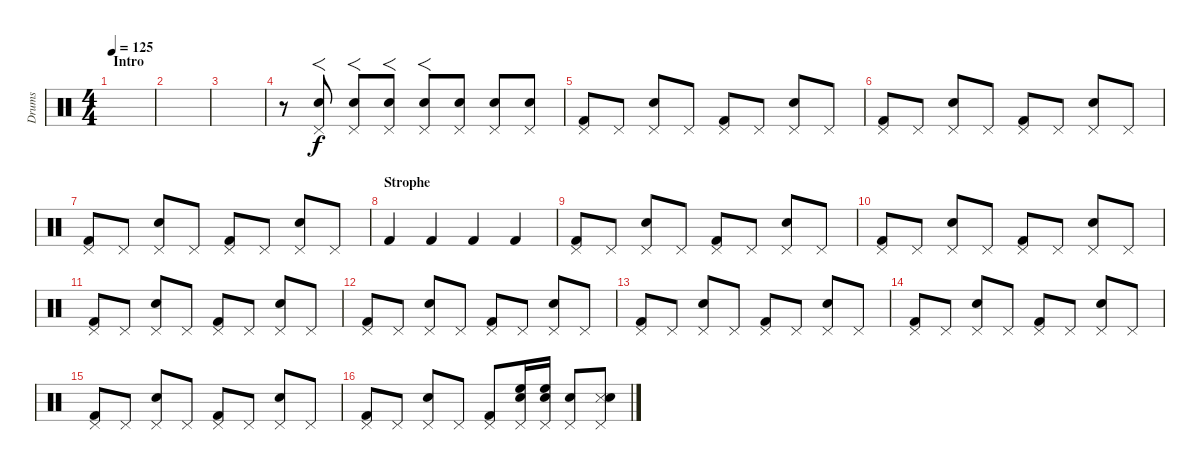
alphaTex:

\track ("Drums" "Drums") {instrument percussion}
\staff {score}
\articulation defaults
\ts (4 4)
\section ("" "Intro")
\tempo 125
\clef neutral
\ks c
|
|
|
r.8 ("Pedal Hi-Hat (hit)" "Snare (hit) 2").8{f} ("Snare (hit) 2" "Pedal Hi-Hat (hit)").8{f} ("Snare (hit) 2" "Pedal Hi-Hat (hit)").8{f} ("Snare (hit) 2" "Pedal Hi-Hat (hit)").8{f} ("Snare (hit) 2" "Pedal Hi-Hat (hit)").8 ("Snare (hit) 2" "Pedal Hi-Hat (hit)").8 ("Snare (hit) 2" "Pedal Hi-Hat (hit)").8 |
("Pedal Hi-Hat (hit)" "Kick (hit) 2").8 "Pedal Hi-Hat (hit)".8 ("Pedal Hi-Hat (hit)" "Snare (hit) 2").8 "Pedal Hi-Hat (hit)".8 ("Pedal Hi-Hat (hit)" "Kick (hit) 2").8 "Pedal Hi-Hat (hit)".8 ("Pedal Hi-Hat (hit)" "Snare (hit) 2").8 "Pedal Hi-Hat (hit)".8 |
("Pedal Hi-Hat (hit)" "Kick (hit) 2").8 "Pedal Hi-Hat (hit)".8 ("Pedal Hi-Hat (hit)" "Snare (hit) 2").8 "Pedal Hi-Hat (hit)".8 ("Pedal Hi-Hat (hit)" "Kick (hit) 2").8 "Pedal Hi-Hat (hit)".8 ("Pedal Hi-Hat (hit)" "Snare (hit) 2").8 "Pedal Hi-Hat (hit)".8 |
("Pedal Hi-Hat (hit)" "Kick (hit) 2").8 "Pedal Hi-Hat (hit)".8 ("Pedal Hi-Hat (hit)" "Snare (hit) 2").8 "Pedal Hi-Hat (hit)".8 ("Pedal Hi-Hat (hit)" "Kick (hit) 2").8 "Pedal Hi-Hat (hit)".8 ("Pedal Hi-Hat (hit)" "Snare (hit) 2").8 "Pedal Hi-Hat (hit)".8 |
\section ("" "Strophe")
"Kick (hit) 2".4 "Kick (hit) 2".4 "Kick (hit) 2".4 "Kick (hit) 2".4 |
("Pedal Hi-Hat (hit)" "Kick (hit) 2").8 "Pedal Hi-Hat (hit)".8 ("Pedal Hi-Hat (hit)" "Snare (hit) 2").8 "Pedal Hi-Hat (hit)".8 ("Pedal Hi-Hat (hit)" "Kick (hit) 2").8 "Pedal Hi-Hat (hit)".8 ("Pedal Hi-Hat (hit)" "Snare (hit) 2").8 "Pedal Hi-Hat (hit)".8 |
("Pedal Hi-Hat (hit)" "Kick (hit) 2").8 "Pedal Hi-Hat (hit)".8 ("Pedal Hi-Hat (hit)" "Snare (hit) 2").8 "Pedal Hi-Hat (hit)".8 ("Pedal Hi-Hat (hit)" "Kick (hit) 2").8 "Pedal Hi-Hat (hit)".8 ("Pedal Hi-Hat (hit)" "Snare (hit) 2").8 "Pedal Hi-Hat (hit)".8 |
("Pedal Hi-Hat (hit)" "Kick (hit) 2").8 "Pedal Hi-Hat (hit)".8 ("Pedal Hi-Hat (hit)" "Snare (hit) 2").8 "Pedal Hi-Hat (hit)".8 ("Pedal Hi-Hat (hit)" "Kick (hit) 2").8 "Pedal Hi-Hat (hit)".8 ("Pedal Hi-Hat (hit)" "Snare (hit) 2").8 "Pedal Hi-Hat (hit)".8 |
("Pedal Hi-Hat (hit)" "Kick (hit) 2").8 "Pedal Hi-Hat (hit)".8 ("Pedal Hi-Hat (hit)" "Snare (hit) 2").8 "Pedal Hi-Hat (hit)".8 ("Pedal Hi-Hat (hit)" "Kick (hit) 2").8 "Pedal Hi-Hat (hit)".8 ("Pedal Hi-Hat (hit)" "Snare (hit) 2").8 "Pedal Hi-Hat (hit)".8 |
("Pedal Hi-Hat (hit)" "Kick (hit) 2").8 "Pedal Hi-Hat (hit)".8 ("Pedal Hi-Hat (hit)" "Snare (hit) 2").8 "Pedal Hi-Hat (hit)".8 ("Pedal Hi-Hat (hit)" "Kick (hit) 2").8 "Pedal Hi-Hat (hit)".8 ("Pedal Hi-Hat (hit)" "Snare (hit) 2").8 "Pedal Hi-Hat (hit)".8 |
("Pedal Hi-Hat (hit)" "Kick (hit) 2").8 "Pedal Hi-Hat (hit)".8 ("Pedal Hi-Hat (hit)" "Snare (hit) 2").8 "Pedal Hi-Hat (hit)".8 ("Pedal Hi-Hat (hit)" "Kick (hit) 2").8 "Pedal Hi-Hat (hit)".8 ("Pedal Hi-Hat (hit)" "Snare (hit) 2").8 "Pedal Hi-Hat (hit)".8 |
("Pedal Hi-Hat (hit)" "Kick (hit) 2").8 "Pedal Hi-Hat (hit)".8 ("Pedal Hi-Hat (hit)" "Snare (hit) 2").8 "Pedal Hi-Hat (hit)".8 ("Pedal Hi-Hat (hit)" "Kick (hit) 2").8 "Pedal Hi-Hat (hit)".8 ("Pedal Hi-Hat (hit)" "Snare (hit) 2").8 "Pedal Hi-Hat (hit)".8 |
("Pedal Hi-Hat (hit)" "Kick (hit) 2").8 "Pedal Hi-Hat (hit)".8 ("Pedal Hi-Hat (hit)" "Snare (hit) 2").8 "Pedal Hi-Hat (hit)".8 ("Pedal Hi-Hat (hit)" "Kick (hit) 2").8 ("Pedal Hi-Hat (hit)" "High Floor Tom (hit)" "Electric Snare (hit)").16 ("Pedal Hi-Hat (hit)" "High Floor Tom (hit)" "Electric Snare (hit)").16 ("Pedal Hi-Hat (hit)" "Snare (hit) 2").8 ("Pedal Hi-Hat (hit)" "Snare (side stick) 3" "Snare (hit) 2").8
